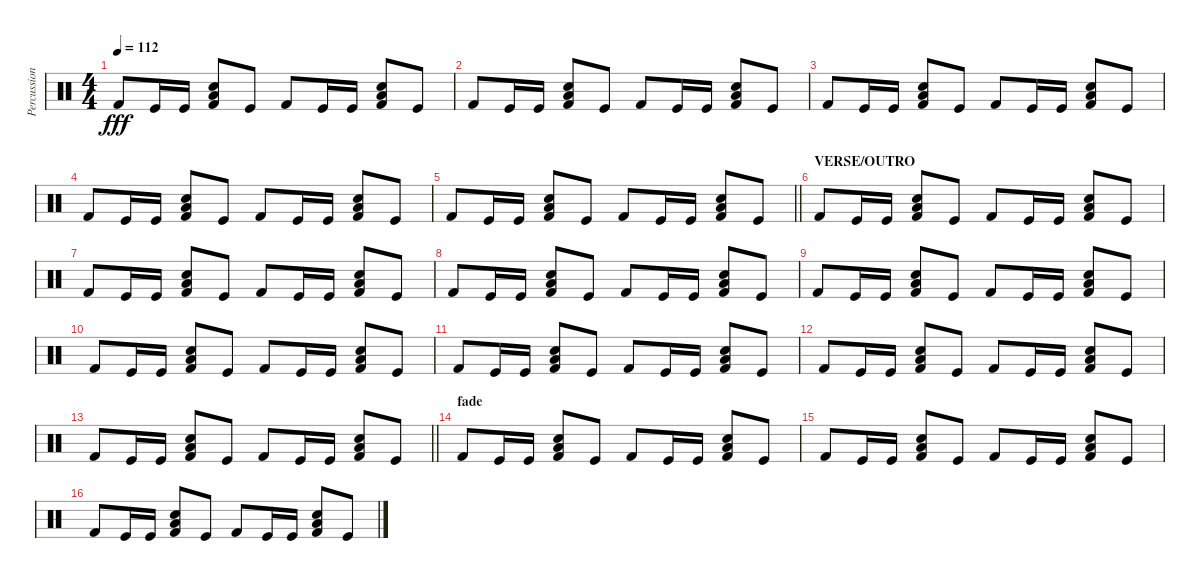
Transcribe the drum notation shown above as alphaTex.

\track ("Percussion" "Percussion") {instrument percussion}
\staff {score}
\articulation defaults
\ts (4 4)
\tempo 112
\clef neutral
\ks c "Kick (hit) 2".8{dy fff} "Kick (hit)".16 "Kick (hit)".16
("Kick (hit) 2" "Low Floor Tom (hit)" "Hand Clap (hit)").8 "Kick (hit)".8 "Kick (hit) 2".8 "Kick (hit)".16 "Kick (hit)".16 ("Kick (hit) 2" "Low Floor Tom (hit)" "Hand Clap (hit)").8 "Kick (hit)".8 |
"Kick (hit) 2".8 "Kick (hit)".16 "Kick (hit)".16 ("Kick (hit) 2" "Low Floor Tom (hit)" "Hand Clap (hit)").8 "Kick (hit)".8 "Kick (hit) 2".8 "Kick (hit)".16 "Kick (hit)".16 ("Kick (hit) 2" "Low Floor Tom (hit)" "Hand Clap (hit)").8 "Kick (hit)".8 |
"Kick (hit) 2".8 "Kick (hit)".16 "Kick (hit)".16 ("Kick (hit) 2" "Low Floor Tom (hit)" "Hand Clap (hit)").8 "Kick (hit)".8 "Kick (hit) 2".8 "Kick (hit)".16 "Kick (hit)".16 ("Kick (hit) 2" "Low Floor Tom (hit)" "Hand Clap (hit)").8 "Kick (hit)".8 |
"Kick (hit) 2".8 "Kick (hit)".16 "Kick (hit)".16 ("Kick (hit) 2" "Low Floor Tom (hit)" "Hand Clap (hit)").8 "Kick (hit)".8 "Kick (hit) 2".8 "Kick (hit)".16 "Kick (hit)".16 ("Kick (hit) 2" "Low Floor Tom (hit)" "Hand Clap (hit)").8 "Kick (hit)".8 |
\barLineRight lightlight "Kick (hit) 2".8 "Kick (hit)".16 "Kick (hit)".16
("Kick (hit) 2" "Low Floor Tom (hit)" "Hand Clap (hit)").8 "Kick (hit)".8 "Kick (hit) 2".8 "Kick (hit)".16 "Kick (hit)".16 ("Kick (hit) 2" "Low Floor Tom (hit)" "Hand Clap (hit)").8 "Kick (hit)".8 |
\section ("" "VERSE/OUTRO")
"Kick (hit) 2".8 "Kick (hit)".16 "Kick (hit)".16 ("Kick (hit) 2" "Low Floor Tom (hit)" "Hand Clap (hit)").8 "Kick (hit)".8 "Kick (hit) 2".8 "Kick (hit)".16 "Kick (hit)".16 ("Kick (hit) 2" "Low Floor Tom (hit)" "Hand Clap (hit)").8 "Kick (hit)".8 |
"Kick (hit) 2".8 "Kick (hit)".16 "Kick (hit)".16 ("Kick (hit) 2" "Low Floor Tom (hit)" "Hand Clap (hit)").8 "Kick (hit)".8 "Kick (hit) 2".8 "Kick (hit)".16 "Kick (hit)".16 ("Kick (hit) 2" "Low Floor Tom (hit)" "Hand Clap (hit)").8 "Kick (hit)".8 |
"Kick (hit) 2".8 "Kick (hit)".16 "Kick (hit)".16 ("Kick (hit) 2" "Low Floor Tom (hit)" "Hand Clap (hit)").8 "Kick (hit)".8 "Kick (hit) 2".8 "Kick (hit)".16 "Kick (hit)".16 ("Kick (hit) 2" "Low Floor Tom (hit)" "Hand Clap (hit)").8 "Kick (hit)".8 |
"Kick (hit) 2".8 "Kick (hit)".16 "Kick (hit)".16 ("Kick (hit) 2" "Low Floor Tom (hit)" "Hand Clap (hit)").8 "Kick (hit)".8 "Kick (hit) 2".8 "Kick (hit)".16 "Kick (hit)".16 ("Kick (hit) 2" "Low Floor Tom (hit)" "Hand Clap (hit)").8 "Kick (hit)".8 |
"Kick (hit) 2".8 "Kick (hit)".16 "Kick (hit)".16 ("Kick (hit) 2" "Low Floor Tom (hit)" "Hand Clap (hit)").8 "Kick (hit)".8 "Kick (hit) 2".8 "Kick (hit)".16 "Kick (hit)".16 ("Kick (hit) 2" "Low Floor Tom (hit)" "Hand Clap (hit)").8 "Kick (hit)".8 |
"Kick (hit) 2".8 "Kick (hit)".16 "Kick (hit)".16 ("Kick (hit) 2" "Low Floor Tom (hit)" "Hand Clap (hit)").8 "Kick (hit)".8 "Kick (hit) 2".8 "Kick (hit)".16 "Kick (hit)".16 ("Kick (hit) 2" "Low Floor Tom (hit)" "Hand Clap (hit)").8 "Kick (hit)".8 |
"Kick (hit) 2".8 "Kick (hit)".16 "Kick (hit)".16 ("Kick (hit) 2" "Low Floor Tom (hit)" "Hand Clap (hit)").8 "Kick (hit)".8 "Kick (hit) 2".8 "Kick (hit)".16 "Kick (hit)".16 ("Kick (hit) 2" "Low Floor Tom (hit)" "Hand Clap (hit)").8 "Kick (hit)".8 |
\barLineRight lightlight "Kick (hit) 2".8 "Kick (hit)".16 "Kick (hit)".16
("Kick (hit) 2" "Low Floor Tom (hit)" "Hand Clap (hit)").8 "Kick (hit)".8 "Kick (hit) 2".8 "Kick (hit)".16 "Kick (hit)".16 ("Kick (hit) 2" "Low Floor Tom (hit)" "Hand Clap (hit)").8 "Kick (hit)".8 |
\section ("" "fade")
"Kick (hit) 2".8 "Kick (hit)".16 "Kick (hit)".16 ("Kick (hit) 2" "Low Floor Tom (hit)" "Hand Clap (hit)").8 "Kick (hit)".8 "Kick (hit) 2".8 "Kick (hit)".16 "Kick (hit)".16 ("Kick (hit) 2" "Low Floor Tom (hit)" "Hand Clap (hit)").8 "Kick (hit)".8 |
"Kick (hit) 2".8 "Kick (hit)".16 "Kick (hit)".16 ("Kick (hit) 2" "Low Floor Tom (hit)" "Hand Clap (hit)").8 "Kick (hit)".8 "Kick (hit) 2".8 "Kick (hit)".16 "Kick (hit)".16 ("Kick (hit) 2" "Low Floor Tom (hit)" "Hand Clap (hit)").8 "Kick (hit)".8 |
"Kick (hit) 2".8 "Kick (hit)".16 "Kick (hit)".16 ("Kick (hit) 2" "Low Floor Tom (hit)" "Hand Clap (hit)").8 "Kick (hit)".8 "Kick (hit) 2".8 "Kick (hit)".16 "Kick (hit)".16 ("Kick (hit) 2" "Low Floor Tom (hit)" "Hand Clap (hit)").8 "Kick (hit)".8
